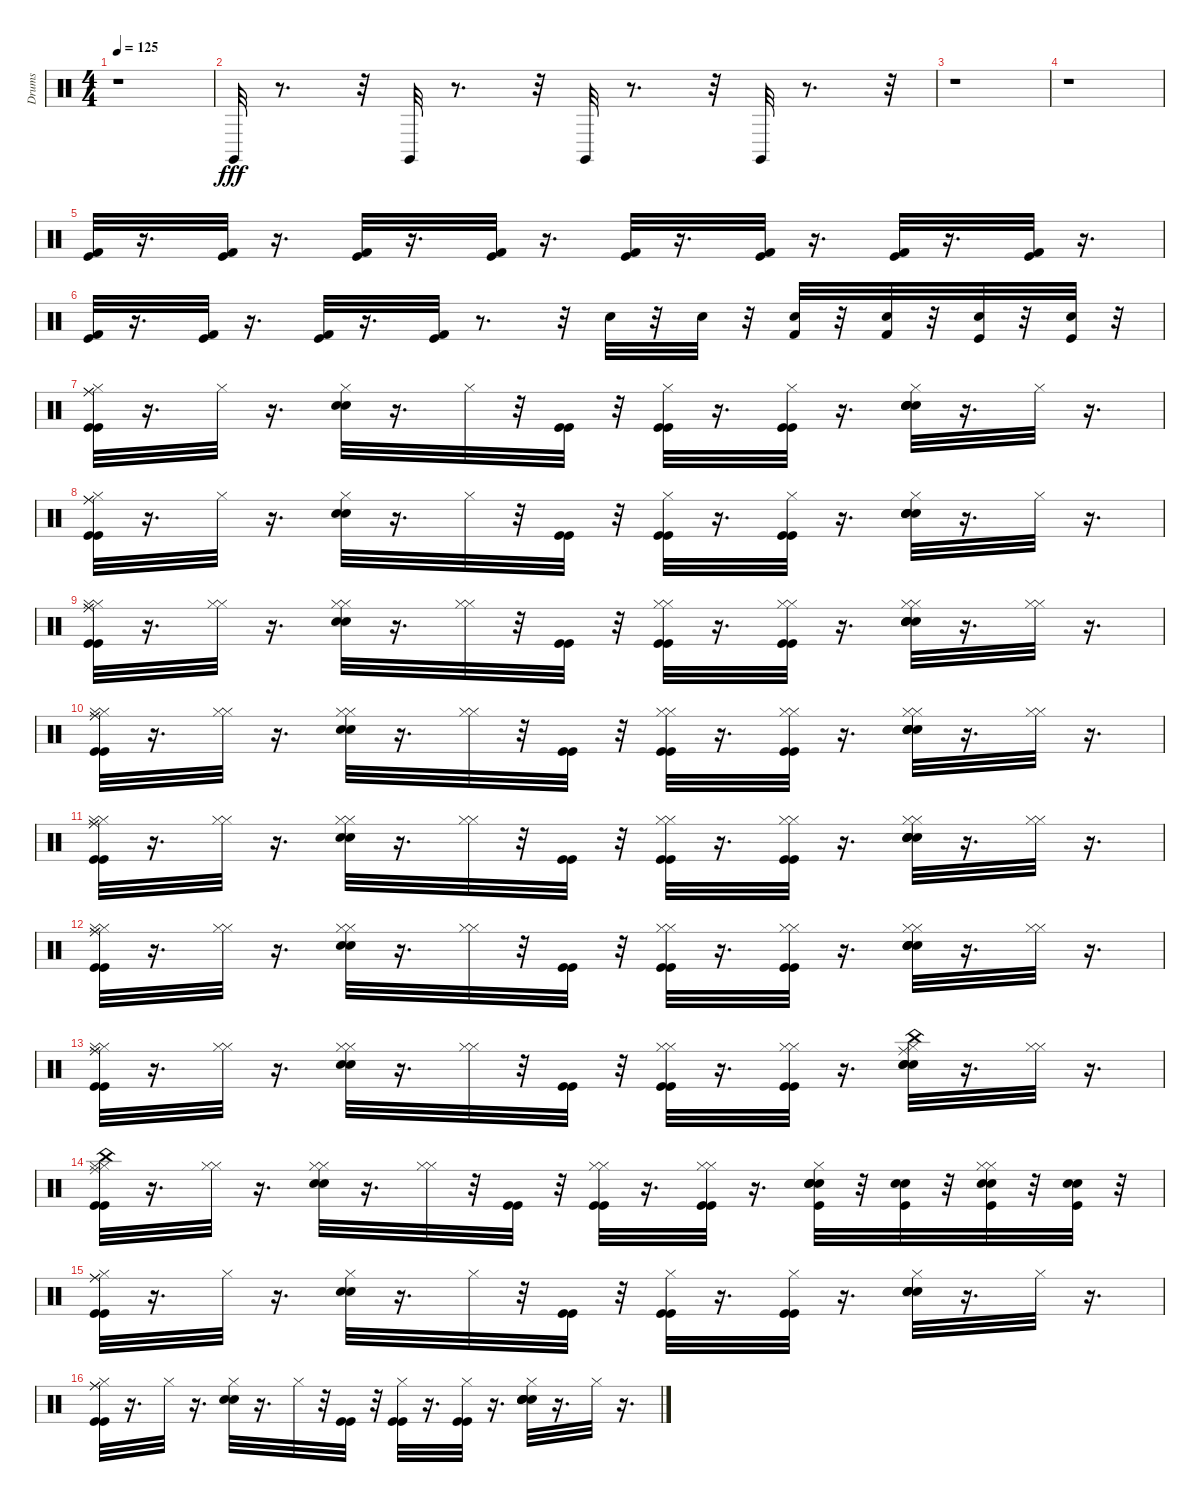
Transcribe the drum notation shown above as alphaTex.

\track ("Drums" "Drums") {instrument percussion}
\staff {score}
\articulation defaults
\ts (4 4)
\tempo 125
\clef neutral
\ks c
r.1{dy fff} |
"Claves (hit)".32 r.8{d} r.32 "Claves (hit)".32 r.8{d} r.32 "Claves (hit)".32 r.8{d} r.32 "Claves (hit)".32 r.8{d} r.32 |
r.1 |
r.1 |
("Kick (hit) 2" "Kick (hit)").32{volume 0} r.16{d} ("Kick (hit) 2" "Kick (hit)").32{volume 0} r.16{d} ("Kick (hit) 2" "Kick (hit)").32{volume 2} r.16{d} ("Kick (hit) 2" "Kick (hit)").32{volume 3} r.16{d} ("Kick (hit) 2" "Kick (hit)").32{volume 5} r.16{d} ("Kick (hit) 2" "Kick (hit)").32{volume 6} r.16{d} ("Kick (hit) 2" "Kick (hit)").32{volume 8} r.16{d} ("Kick (hit) 2" "Kick (hit)").32{volume 9} r.16{d} |
("Kick (hit) 2" "Kick (hit)").32{volume 10} r.16{d} ("Kick (hit) 2" "Kick (hit)").32{volume 12} r.16{d} ("Kick (hit) 2" "Kick (hit)").32{volume 13} r.16{d} ("Kick (hit) 2" "Kick (hit)").32{volume 15} r.8{d} r.32 "Electric Snare (hit)".32{volume 16} r.32 "Electric Snare (hit)".32 r.32 ("Kick (hit) 2" "Electric Snare (hit)").32 r.32 ("Kick (hit) 2" "Electric Snare (hit)").32 r.32 ("Snare (hit) 2" "Kick (hit)").32 r.32 ("Snare (hit) 2" "Kick (hit)").32 r.32 |
("Hi-Hat (closed)" "Kick (hit)" "Ride (middle)" "Kick (hit)" "Ride (middle)").32 r.16{d} "Hi-Hat (closed)".32 r.16{d} ("Snare (hit) 2" "Electric Snare (hit)" "Hi-Hat (closed)").32 r.16{d} "Hi-Hat (closed)".32 r.32 ("Kick (hit)" "Kick (hit)").32 r.32 ("Hi-Hat (closed)" "Kick (hit)" "Kick (hit)").32 r.16{d} ("Hi-Hat (closed)" "Kick (hit)" "Kick (hit)").32 r.16{d} ("Hi-Hat (closed)" "Snare (hit) 2" "Electric Snare (hit)" "Snare (hit) 2" "Electric Snare (hit)").32 r.16{d} "Hi-Hat (closed)".32 r.16{d} |
("Hi-Hat (closed)" "Kick (hit)" "Ride (middle)" "Kick (hit)" "Ride (middle)").32 r.16{d} "Hi-Hat (closed)".32 r.16{d} ("Snare (hit) 2" "Electric Snare (hit)" "Hi-Hat (closed)").32 r.16{d} "Hi-Hat (closed)".32 r.32 ("Kick (hit)" "Kick (hit)").32 r.32 ("Hi-Hat (closed)" "Kick (hit)" "Kick (hit)").32 r.16{d} ("Hi-Hat (closed)" "Kick (hit)" "Kick (hit)").32 r.16{d} ("Hi-Hat (closed)" "Snare (hit) 2" "Electric Snare (hit)" "Snare (hit) 2" "Electric Snare (hit)").32 r.16{d} "Hi-Hat (closed)".32 r.16{d} |
("Kick (hit)" "Hi-Hat (closed)" "Ride (middle)" "Kick (hit)" "Hi-Hat (closed)" "Ride (middle)").32 r.16{d} ("Hi-Hat (closed)" "Hi-Hat (closed)").32 r.16{d} ("Snare (hit) 2" "Electric Snare (hit)" "Hi-Hat (closed)" "Hi-Hat (closed)").32 r.16{d} ("Hi-Hat (closed)" "Hi-Hat (closed)").32 r.32 ("Kick (hit)" "Kick (hit)").32 r.32 ("Kick (hit)" "Hi-Hat (closed)" "Kick (hit)" "Hi-Hat (closed)").32 r.16{d} ("Kick (hit)" "Hi-Hat (closed)" "Kick (hit)" "Hi-Hat (closed)").32 r.16{d} ("Snare (hit) 2" "Electric Snare (hit)" "Hi-Hat (closed)" "Snare (hit) 2" "Electric Snare (hit)" "Hi-Hat (closed)").32 r.16{d} ("Hi-Hat (closed)" "Hi-Hat (closed)").32 r.16{d} |
("Kick (hit)" "Hi-Hat (closed)" "Ride (middle)" "Kick (hit)" "Hi-Hat (closed)" "Ride (middle)").32 r.16{d} ("Hi-Hat (closed)" "Hi-Hat (closed)").32 r.16{d} ("Snare (hit) 2" "Electric Snare (hit)" "Hi-Hat (closed)" "Hi-Hat (closed)").32 r.16{d} ("Hi-Hat (closed)" "Hi-Hat (closed)").32 r.32 ("Kick (hit)" "Kick (hit)").32 r.32 ("Kick (hit)" "Hi-Hat (closed)" "Kick (hit)" "Hi-Hat (closed)").32 r.16{d} ("Kick (hit)" "Hi-Hat (closed)" "Kick (hit)" "Hi-Hat (closed)").32 r.16{d} ("Snare (hit) 2" "Electric Snare (hit)" "Hi-Hat (closed)" "Snare (hit) 2" "Electric Snare (hit)" "Hi-Hat (closed)").32 r.16{d} ("Hi-Hat (closed)" "Hi-Hat (closed)").32 r.16{d} |
("Kick (hit)" "Hi-Hat (closed)" "Ride (middle)" "Kick (hit)" "Hi-Hat (closed)" "Ride (middle)").32 r.16{d} ("Hi-Hat (closed)" "Hi-Hat (closed)").32 r.16{d} ("Snare (hit) 2" "Electric Snare (hit)" "Hi-Hat (closed)" "Hi-Hat (closed)").32 r.16{d} ("Hi-Hat (closed)" "Hi-Hat (closed)").32 r.32 ("Kick (hit)" "Kick (hit)").32 r.32 ("Kick (hit)" "Hi-Hat (closed)" "Kick (hit)" "Hi-Hat (closed)").32 r.16{d} ("Kick (hit)" "Hi-Hat (closed)" "Kick (hit)" "Hi-Hat (closed)").32 r.16{d} ("Snare (hit) 2" "Electric Snare (hit)" "Hi-Hat (closed)" "Snare (hit) 2" "Electric Snare (hit)" "Hi-Hat (closed)").32 r.16{d} ("Hi-Hat (closed)" "Hi-Hat (closed)").32 r.16{d} |
("Kick (hit)" "Hi-Hat (closed)" "Ride (middle)" "Kick (hit)" "Hi-Hat (closed)" "Ride (middle)").32 r.16{d} ("Hi-Hat (closed)" "Hi-Hat (closed)").32 r.16{d} ("Snare (hit) 2" "Electric Snare (hit)" "Hi-Hat (closed)" "Hi-Hat (closed)").32 r.16{d} ("Hi-Hat (closed)" "Hi-Hat (closed)").32 r.32 ("Kick (hit)" "Kick (hit)").32 r.32 ("Kick (hit)" "Hi-Hat (closed)" "Kick (hit)" "Hi-Hat (closed)").32 r.16{d} ("Kick (hit)" "Hi-Hat (closed)" "Kick (hit)" "Hi-Hat (closed)").32 r.16{d} ("Snare (hit) 2" "Electric Snare (hit)" "Hi-Hat (closed)" "Snare (hit) 2" "Electric Snare (hit)" "Hi-Hat (closed)").32 r.16{d} ("Hi-Hat (closed)" "Hi-Hat (closed)").32 r.16{d} |
("Kick (hit)" "Hi-Hat (closed)" "Ride (middle)" "Kick (hit)" "Hi-Hat (closed)" "Ride (middle)").32 r.16{d} ("Hi-Hat (closed)" "Hi-Hat (closed)").32 r.16{d} ("Electric Snare (hit)" "Snare (hit) 2" "Hi-Hat (closed)" "Hi-Hat (closed)").32 r.16{d} ("Hi-Hat (closed)" "Hi-Hat (closed)").32 r.32 ("Kick (hit)" "Kick (hit)").32 r.32 ("Kick (hit)" "Hi-Hat (closed)" "Kick (hit)" "Hi-Hat (closed)").32 r.16{d} ("Kick (hit)" "Hi-Hat (closed)" "Kick (hit)" "Hi-Hat (closed)").32 r.16{d} ("Ride (middle)" "China (hit)" "Snare (hit) 2" "Electric Snare (hit)" "Hi-Hat (closed)" "Snare (hit) 2").32 r.16{d} ("Hi-Hat (closed)" "Hi-Hat (closed)").32 r.16{d} |
("China (hit)" "Kick (hit)" "Hi-Hat (closed)" "Ride (middle)" "Kick (hit)" "Hi-Hat (closed)").32 r.16{d} ("Hi-Hat (closed)" "Hi-Hat (closed)").32 r.16{d} ("Snare (hit) 2" "Electric Snare (hit)" "Hi-Hat (closed)" "Hi-Hat (closed)").32 r.16{d} ("Hi-Hat (closed)" "Hi-Hat (closed)").32 r.32 ("Kick (hit)" "Kick (hit)").32 r.32 ("Kick (hit)" "Hi-Hat (closed)" "Kick (hit)" "Hi-Hat (closed)").32 r.16{d} ("Kick (hit)" "Hi-Hat (closed)" "Kick (hit)" "Hi-Hat (closed)").32 r.16{d} ("Kick (hit)" "Snare (hit) 2" "Electric Snare (hit)" "Hi-Hat (closed)" "Snare (hit) 2" "Electric Snare (hit)").32 r.32 ("Electric Snare (hit)" "Snare (hit) 2" "Kick (hit)").32 r.32 ("Snare (hit) 2" "Electric Snare (hit)" "Kick (hit)" "Hi-Hat (closed)" "Hi-Hat (closed)").32 r.32 ("Electric Snare (hit)" "Snare (hit) 2" "Kick (hit)").32 r.32 |
("Hi-Hat (closed)" "Kick (hit)" "Ride (middle)" "Kick (hit)" "Ride (middle)").32 r.16{d} "Hi-Hat (closed)".32 r.16{d} ("Snare (hit) 2" "Electric Snare (hit)" "Hi-Hat (closed)").32 r.16{d} "Hi-Hat (closed)".32 r.32 ("Kick (hit)" "Kick (hit)").32 r.32 ("Hi-Hat (closed)" "Kick (hit)" "Kick (hit)").32 r.16{d} ("Hi-Hat (closed)" "Kick (hit)" "Kick (hit)").32 r.16{d} ("Hi-Hat (closed)" "Snare (hit) 2" "Electric Snare (hit)" "Snare (hit) 2" "Electric Snare (hit)").32 r.16{d} "Hi-Hat (closed)".32 r.16{d} |
("Hi-Hat (closed)" "Kick (hit)" "Ride (middle)" "Kick (hit)" "Ride (middle)").32 r.16{d} "Hi-Hat (closed)".32 r.16{d} ("Snare (hit) 2" "Electric Snare (hit)" "Hi-Hat (closed)").32 r.16{d} "Hi-Hat (closed)".32 r.32 ("Kick (hit)" "Kick (hit)").32 r.32 ("Hi-Hat (closed)" "Kick (hit)" "Kick (hit)").32 r.16{d} ("Hi-Hat (closed)" "Kick (hit)" "Kick (hit)").32 r.16{d} ("Hi-Hat (closed)" "Snare (hit) 2" "Electric Snare (hit)" "Snare (hit) 2" "Electric Snare (hit)").32 r.16{d} "Hi-Hat (closed)".32 r.16{d}
